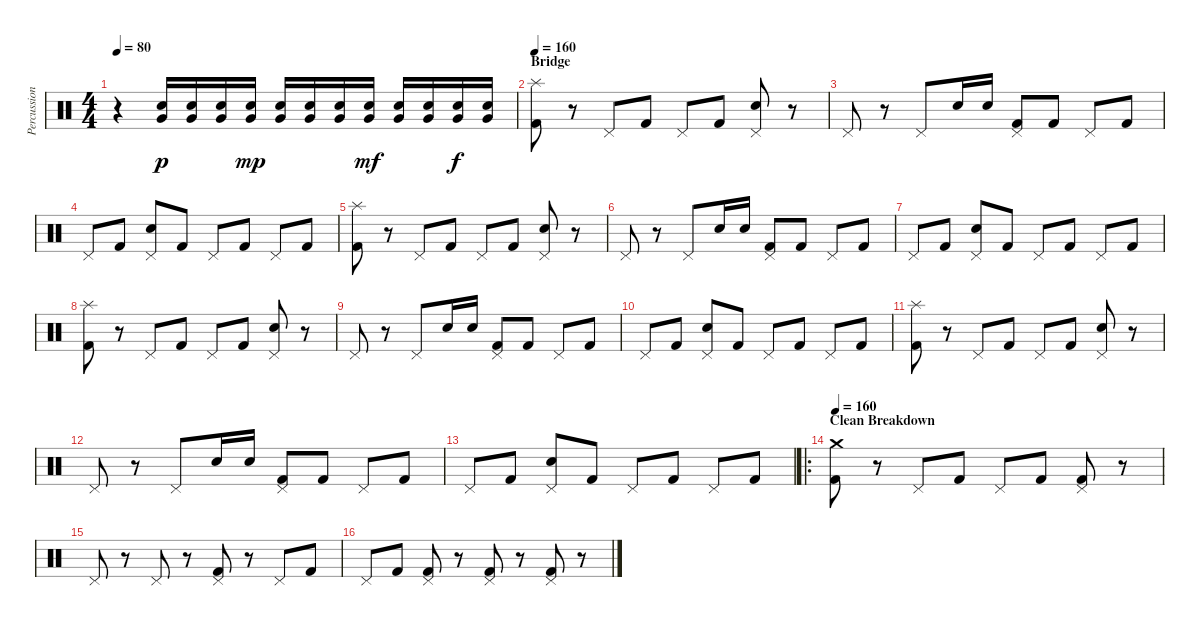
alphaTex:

\track ("Percussion" "Percussion") {instrument percussion}
\staff {score}
\articulation defaults
\ts (4 4)
\tempo 80
\clef neutral
\ks c
r.4{dy f} ("Electric Snare (hit)" "Very Low Tom (hit)").16{dy p} ("Electric Snare (hit)" "Very Low Tom (hit)").16 ("Electric Snare (hit)" "Very Low Tom (hit)").16 ("Electric Snare (hit)" "Very Low Tom (hit)").16{dy mp} ("Electric Snare (hit)" "Very Low Tom (hit)").16 ("Electric Snare (hit)" "Very Low Tom (hit)").16 ("Electric Snare (hit)" "Very Low Tom (hit)").16 ("Electric Snare (hit)" "Very Low Tom (hit)").16{dy mf} ("Electric Snare (hit)" "Very Low Tom (hit)").16 ("Electric Snare (hit)" "Very Low Tom (hit)").16 ("Electric Snare (hit)" "Very Low Tom (hit)").16{dy f} ("Electric Snare (hit)" "Very Low Tom (hit)").16 |
\section ("" "Bridge")
\tempo 160
("Splash (hit)" "Kick (hit) 2").8 r.8 "Pedal Hi-Hat (hit)".8 "Kick (hit) 2".8 "Pedal Hi-Hat (hit)".8 "Kick (hit) 2".8 ("Pedal Hi-Hat (hit)" "Electric Snare (hit)").8 r.8 |
"Pedal Hi-Hat (hit)".8 r.8 "Pedal Hi-Hat (hit)".8 "Electric Snare (hit)".16 "Electric Snare (hit)".16 ("Pedal Hi-Hat (hit)" "Kick (hit) 2").8 "Kick (hit) 2".8 "Pedal Hi-Hat (hit)".8 "Kick (hit) 2".8 |
"Pedal Hi-Hat (hit)".8 "Kick (hit) 2".8 ("Pedal Hi-Hat (hit)" "Electric Snare (hit)").8 "Kick (hit) 2".8 "Pedal Hi-Hat (hit)".8 "Kick (hit) 2".8 "Pedal Hi-Hat (hit)".8 "Kick (hit) 2".8 |
("Splash (hit)" "Kick (hit) 2").8 r.8 "Pedal Hi-Hat (hit)".8 "Kick (hit) 2".8 "Pedal Hi-Hat (hit)".8 "Kick (hit) 2".8 ("Pedal Hi-Hat (hit)" "Electric Snare (hit)").8 r.8 |
"Pedal Hi-Hat (hit)".8 r.8 "Pedal Hi-Hat (hit)".8 "Electric Snare (hit)".16 "Electric Snare (hit)".16 ("Pedal Hi-Hat (hit)" "Kick (hit) 2").8 "Kick (hit) 2".8 "Pedal Hi-Hat (hit)".8 "Kick (hit) 2".8 |
"Pedal Hi-Hat (hit)".8 "Kick (hit) 2".8 ("Pedal Hi-Hat (hit)" "Electric Snare (hit)").8 "Kick (hit) 2".8 "Pedal Hi-Hat (hit)".8 "Kick (hit) 2".8 "Pedal Hi-Hat (hit)".8 "Kick (hit) 2".8 |
("Splash (hit)" "Kick (hit) 2").8 r.8 "Pedal Hi-Hat (hit)".8 "Kick (hit) 2".8 "Pedal Hi-Hat (hit)".8 "Kick (hit) 2".8 ("Pedal Hi-Hat (hit)" "Electric Snare (hit)").8 r.8 |
"Pedal Hi-Hat (hit)".8 r.8 "Pedal Hi-Hat (hit)".8 "Electric Snare (hit)".16 "Electric Snare (hit)".16 ("Pedal Hi-Hat (hit)" "Kick (hit) 2").8 "Kick (hit) 2".8 "Pedal Hi-Hat (hit)".8 "Kick (hit) 2".8 |
"Pedal Hi-Hat (hit)".8 "Kick (hit) 2".8 ("Pedal Hi-Hat (hit)" "Electric Snare (hit)").8 "Kick (hit) 2".8 "Pedal Hi-Hat (hit)".8 "Kick (hit) 2".8 "Pedal Hi-Hat (hit)".8 "Kick (hit) 2".8 |
("Splash (hit)" "Kick (hit) 2").8 r.8 "Pedal Hi-Hat (hit)".8 "Kick (hit) 2".8 "Pedal Hi-Hat (hit)".8 "Kick (hit) 2".8 ("Pedal Hi-Hat (hit)" "Electric Snare (hit)").8 r.8 |
"Pedal Hi-Hat (hit)".8 r.8 "Pedal Hi-Hat (hit)".8 "Electric Snare (hit)".16 "Electric Snare (hit)".16 ("Pedal Hi-Hat (hit)" "Kick (hit) 2").8 "Kick (hit) 2".8 "Pedal Hi-Hat (hit)".8 "Kick (hit) 2".8 |
"Pedal Hi-Hat (hit)".8 "Kick (hit) 2".8 ("Pedal Hi-Hat (hit)" "Electric Snare (hit)").8 "Kick (hit) 2".8 "Pedal Hi-Hat (hit)".8 "Kick (hit) 2".8 "Pedal Hi-Hat (hit)".8 "Kick (hit) 2".8 |
\ro
\section ("" "Clean Breakdown")
\tempo 160
("Crash medium (hit)" "Kick (hit) 2").8 r.8 "Pedal Hi-Hat (hit)".8 "Kick (hit) 2".8 "Pedal Hi-Hat (hit)".8 "Kick (hit) 2".8 ("Pedal Hi-Hat (hit)" "Kick (hit) 2").8 r.8 |
"Pedal Hi-Hat (hit)".8 r.8 "Pedal Hi-Hat (hit)".8 r.8 ("Pedal Hi-Hat (hit)" "Kick (hit) 2").8 r.8 "Pedal Hi-Hat (hit)".8 "Kick (hit) 2".8 |
"Pedal Hi-Hat (hit)".8 "Kick (hit) 2".8 ("Pedal Hi-Hat (hit)" "Kick (hit) 2").8 r.8 ("Pedal Hi-Hat (hit)" "Kick (hit) 2").8 r.8 ("Pedal Hi-Hat (hit)" "Kick (hit) 2").8 r.8
